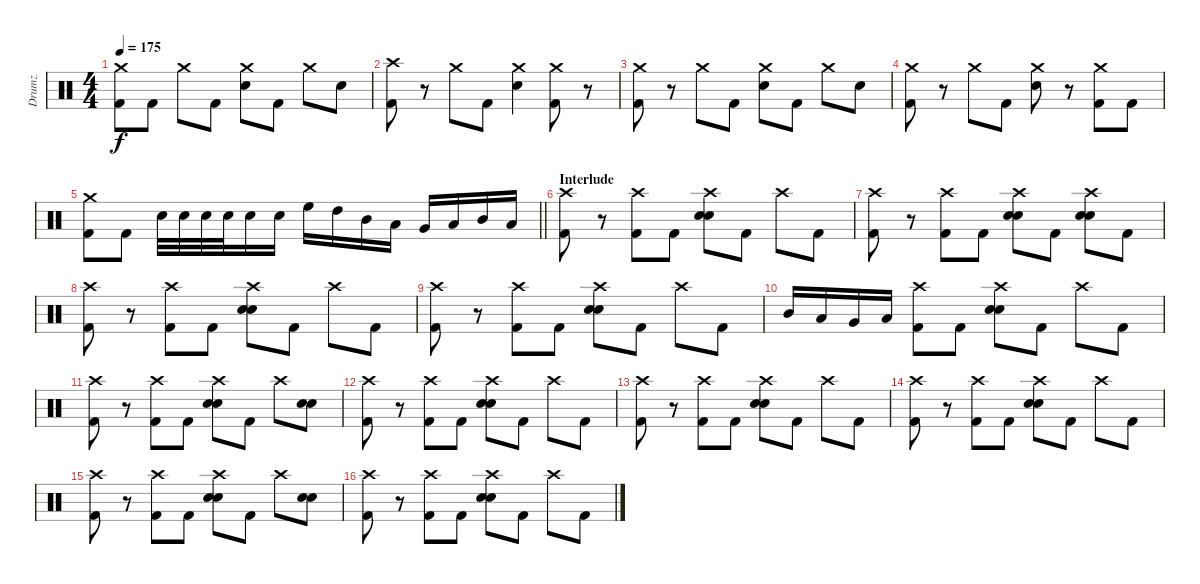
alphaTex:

\track ("Drumz" "Drumz") {instrument percussion}
\staff {score}
\articulation defaults
\ts (4 4)
\tempo 175
\clef neutral
\ks c
("Crash medium (hit)" "Kick (hit) 2").8{dy f} "Kick (hit) 2".8 "Crash medium (hit)".8 "Kick (hit) 2".8 ("Crash medium (hit)" "Snare (hit) 2").8 "Kick (hit) 2".8 "Crash medium (hit)".8 "Snare (hit) 2".8 |
("Kick (hit) 2" "Crash high (hit)").8 r.8 "Crash medium (hit)".8 "Kick (hit) 2".8 ("Crash medium (hit)" "Snare (hit) 2").4 ("Crash medium (hit)" "Kick (hit) 2").8 r.8 |
("Crash medium (hit)" "Kick (hit) 2").8 r.8 "Crash medium (hit)".8 "Kick (hit) 2".8 ("Crash medium (hit)" "Snare (hit) 2").8 "Kick (hit) 2".8 "Crash medium (hit)".8 "Snare (hit) 2".8 |
("Crash medium (hit)" "Kick (hit) 2").8 r.8 "Crash medium (hit)".8 "Kick (hit) 2".8 ("Crash medium (hit)" "Snare (hit) 2").8 r.8 ("Crash medium (hit)" "Kick (hit) 2").8 "Kick (hit) 2".8 |
\barLineRight lightlight
("Crash medium (hit)" "Kick (hit) 2").8 "Kick (hit) 2".8 "Electric Snare (hit)".32 "Electric Snare (hit)".32 "Electric Snare (hit)".32 "Electric Snare (hit)".32 "Electric Snare (hit)".16 "Electric Snare (hit)".16 "High Floor Tom (hit)".16 "High Tom (hit)".16 "Mid Tom (hit)".16 "Low Tom (hit)".16 "Very Low Tom (hit)".16 "Low Floor Tom (hit)".16 "Mid Tom (hit)".16 "Low Tom (hit)".16 |
\section ("" "Interlude")
("Kick (hit) 2" "Crash high (hit)").8 r.8 ("Kick (hit) 2" "Crash high (hit)").8 "Kick (hit) 2".8 ("Electric Snare (hit)" "Electric Snare (hit)" "Crash high (hit)").8 "Kick (hit) 2".8 "Crash high (hit)".8 "Kick (hit) 2".8 |
("Kick (hit) 2" "Crash high (hit)").8 r.8 ("Kick (hit) 2" "Crash high (hit)").8 "Kick (hit) 2".8 ("Electric Snare (hit)" "Electric Snare (hit)" "Crash high (hit)").8 "Kick (hit) 2".8 ("Crash high (hit)" "Electric Snare (hit)" "Electric Snare (hit)").8 "Kick (hit) 2".8 |
("Kick (hit) 2" "Crash high (hit)").8 r.8 ("Kick (hit) 2" "Crash high (hit)").8 "Kick (hit) 2".8 ("Electric Snare (hit)" "Electric Snare (hit)" "Crash high (hit)").8 "Kick (hit) 2".8 "Crash high (hit)".8 "Kick (hit) 2".8 |
("Kick (hit) 2" "Crash high (hit)").8 r.8 ("Kick (hit) 2" "Crash high (hit)").8 "Kick (hit) 2".8 ("Electric Snare (hit)" "Electric Snare (hit)" "Crash high (hit)").8 "Kick (hit) 2".8 "Crash high (hit)".8 "Kick (hit) 2".8 |
"Mid Tom (hit)".16 "Low Tom (hit)".16 "Very Low Tom (hit)".16 "Low Floor Tom (hit)".16 ("Kick (hit) 2" "Crash high (hit)").8 "Kick (hit) 2".8 ("Electric Snare (hit)" "Electric Snare (hit)" "Crash high (hit)").8 "Kick (hit) 2".8 "Crash high (hit)".8 "Kick (hit) 2".8 |
("Kick (hit) 2" "Crash high (hit)").8 r.8 ("Kick (hit) 2" "Crash high (hit)").8 "Kick (hit) 2".8 ("Electric Snare (hit)" "Electric Snare (hit)" "Crash high (hit)").8 "Kick (hit) 2".8 "Crash high (hit)".8 ("Electric Snare (hit)" "Electric Snare (hit)").8 |
("Kick (hit) 2" "Crash high (hit)").8 r.8 ("Kick (hit) 2" "Crash high (hit)").8 "Kick (hit) 2".8 ("Electric Snare (hit)" "Electric Snare (hit)" "Crash high (hit)").8 "Kick (hit) 2".8 "Crash high (hit)".8 "Kick (hit) 2".8 |
("Kick (hit) 2" "Crash high (hit)").8 r.8 ("Kick (hit) 2" "Crash high (hit)").8 "Kick (hit) 2".8 ("Electric Snare (hit)" "Electric Snare (hit)" "Crash high (hit)").8 "Kick (hit) 2".8 "Crash high (hit)".8 "Kick (hit) 2".8 |
("Kick (hit) 2" "Crash high (hit)").8 r.8 ("Kick (hit) 2" "Crash high (hit)").8 "Kick (hit) 2".8 ("Electric Snare (hit)" "Electric Snare (hit)" "Crash high (hit)").8 "Kick (hit) 2".8 "Crash high (hit)".8 "Kick (hit) 2".8 |
("Kick (hit) 2" "Crash high (hit)").8 r.8 ("Kick (hit) 2" "Crash high (hit)").8 "Kick (hit) 2".8 ("Electric Snare (hit)" "Electric Snare (hit)" "Crash high (hit)").8 "Kick (hit) 2".8 "Crash high (hit)".8 ("Electric Snare (hit)" "Electric Snare (hit)").8 |
("Kick (hit) 2" "Crash high (hit)").8 r.8 ("Kick (hit) 2" "Crash high (hit)").8 "Kick (hit) 2".8 ("Electric Snare (hit)" "Electric Snare (hit)" "Crash high (hit)").8 "Kick (hit) 2".8 "Crash high (hit)".8 "Kick (hit) 2".8
